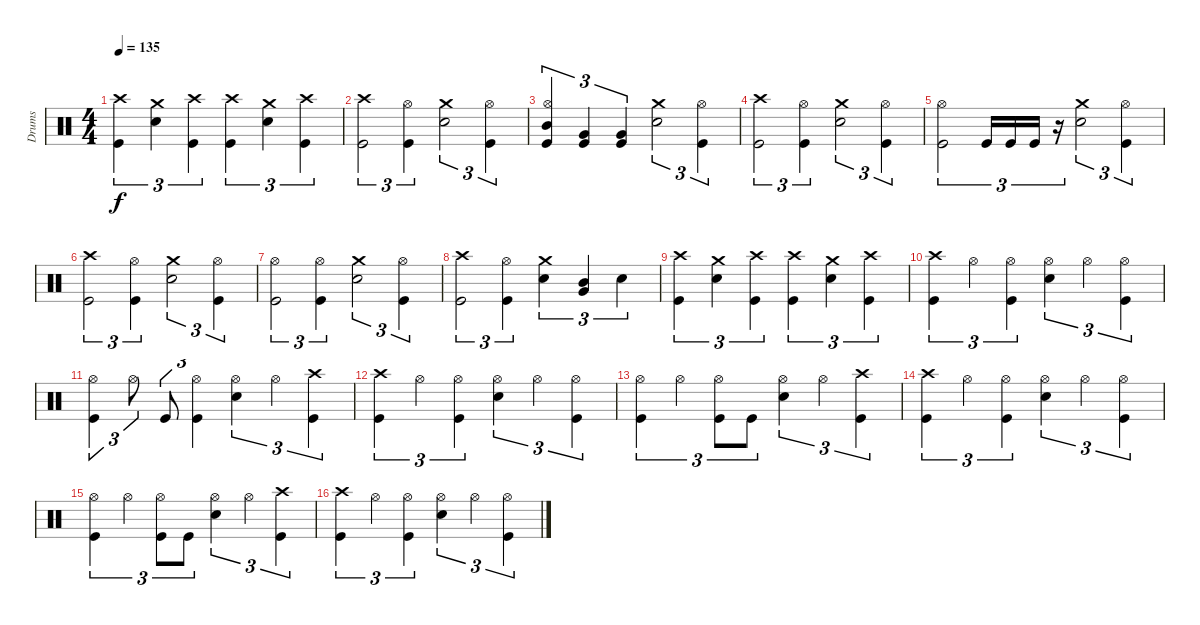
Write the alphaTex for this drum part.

\track ("Drums" "Drums") {instrument percussion}
\staff {score}
\articulation defaults
\ts (4 4)
\tempo 135
\clef neutral
\ks c
("Crash high (hit)" "Kick (hit)").4{tu (3 2) dy f} ("Crash medium (hit)" "Electric Snare (hit)").4{tu (3 2)} ("Crash high (hit)" "Kick (hit)").4{tu (3 2)} ("Crash high (hit)" "Kick (hit)").4{tu (3 2)} ("Crash medium (hit)" "Electric Snare (hit)").4{tu (3 2)} ("Crash high (hit)" "Kick (hit)").4{tu (3 2)} |
("Crash high (hit)" "Kick (hit)").2{tu (3 2)} ("Hi-Hat (open)" "Kick (hit)").4{tu (3 2)} ("Crash medium (hit)" "Electric Snare (hit)").2{tu (3 2)} ("Hi-Hat (open)" "Kick (hit)").4{tu (3 2)} |
("Hi-Hat (open)" "Mid Tom (hit)" "Kick (hit)").4{tu (3 2)} ("Very Low Tom (hit)" "Kick (hit)").4{tu (3 2)} ("Very Low Tom (hit)" "Kick (hit)").4{tu (3 2)} ("Crash medium (hit)" "Electric Snare (hit)").2{tu (3 2)} ("Hi-Hat (open)" "Kick (hit)").4{tu (3 2)} |
("Crash high (hit)" "Kick (hit)").2{tu (3 2)} ("Hi-Hat (open)" "Kick (hit)").4{tu (3 2)} ("Crash medium (hit)" "Electric Snare (hit)").2{tu (3 2)} ("Hi-Hat (open)" "Kick (hit)").4{tu (3 2)} |
("Hi-Hat (open)" "Kick (hit)").2{tu (3 2)} "Kick (hit)".16{tu (3 2)} "Kick (hit)".16{tu (3 2)} "Kick (hit)".16{tu (3 2)} r.16{tu (3 2)} ("Crash medium (hit)" "Electric Snare (hit)").2{tu (3 2)} ("Hi-Hat (open)" "Kick (hit)").4{tu (3 2)} |
("Crash high (hit)" "Kick (hit)").2{tu (3 2)} ("Hi-Hat (open)" "Kick (hit)").4{tu (3 2)} ("Crash medium (hit)" "Electric Snare (hit)").2{tu (3 2)} ("Hi-Hat (open)" "Kick (hit)").4{tu (3 2)} |
("Hi-Hat (open)" "Kick (hit)").2{tu (3 2)} ("Hi-Hat (open)" "Kick (hit)").4{tu (3 2)} ("Crash medium (hit)" "Electric Snare (hit)").2{tu (3 2)} ("Hi-Hat (open)" "Kick (hit)").4{tu (3 2)} |
("Crash high (hit)" "Kick (hit)").2{tu (3 2)} ("Hi-Hat (open)" "Kick (hit)").4{tu (3 2)} ("Crash medium (hit)" "Electric Snare (hit)").4{tu (3 2)} ("Mid Tom (hit)" "Very Low Tom (hit)").4{tu (3 2)} "Electric Snare (hit)".4{tu (3 2)} |
("Crash high (hit)" "Kick (hit)").4{tu (3 2)} ("Crash medium (hit)" "Electric Snare (hit)").4{tu (3 2)} ("Crash high (hit)" "Kick (hit)").4{tu (3 2)} ("Crash high (hit)" "Kick (hit)").4{tu (3 2)} ("Crash medium (hit)" "Electric Snare (hit)").4{tu (3 2)} ("Crash high (hit)" "Kick (hit)").4{tu (3 2)} |
("Crash high (hit)" "Kick (hit)").4{tu (3 2)} "Hi-Hat (open)".4{tu (3 2)} ("Hi-Hat (open)" "Kick (hit)").4{tu (3 2)} ("Hi-Hat (open)" "Electric Snare (hit)").4{tu (3 2)} "Hi-Hat (open)".4{tu (3 2)} ("Hi-Hat (open)" "Kick (hit)").4{tu (3 2)} |
("Hi-Hat (open)" "Kick (hit)").4{tu (3 2)} "Hi-Hat (open)".8{tu (3 2)} "Kick (hit)".8{tu (3 2)} ("Hi-Hat (open)" "Kick (hit)").4{tu (3 2)} ("Hi-Hat (open)" "Electric Snare (hit)").4{tu (3 2)} "Hi-Hat (open)".4{tu (3 2)} ("Crash high (hit)" "Kick (hit)").4{tu (3 2)} |
("Crash high (hit)" "Kick (hit)").4{tu (3 2)} "Hi-Hat (open)".4{tu (3 2)} ("Hi-Hat (open)" "Kick (hit)").4{tu (3 2)} ("Hi-Hat (open)" "Electric Snare (hit)").4{tu (3 2)} "Hi-Hat (open)".4{tu (3 2)} ("Hi-Hat (open)" "Kick (hit)").4{tu (3 2)} |
("Hi-Hat (open)" "Kick (hit)").4{tu (3 2)} "Hi-Hat (open)".4{tu (3 2)} ("Hi-Hat (open)" "Kick (hit)").8{tu (3 2)} "Kick (hit)".8{tu (3 2)} ("Hi-Hat (open)" "Electric Snare (hit)").4{tu (3 2)} "Hi-Hat (open)".4{tu (3 2)} ("Crash high (hit)" "Kick (hit)").4{tu (3 2)} |
("Crash high (hit)" "Kick (hit)").4{tu (3 2)} "Hi-Hat (open)".4{tu (3 2)} ("Hi-Hat (open)" "Kick (hit)").4{tu (3 2)} ("Hi-Hat (open)" "Electric Snare (hit)").4{tu (3 2)} "Hi-Hat (open)".4{tu (3 2)} ("Hi-Hat (open)" "Kick (hit)").4{tu (3 2)} |
("Hi-Hat (open)" "Kick (hit)").4{tu (3 2)} "Hi-Hat (open)".4{tu (3 2)} ("Hi-Hat (open)" "Kick (hit)").8{tu (3 2)} "Kick (hit)".8{tu (3 2)} ("Hi-Hat (open)" "Electric Snare (hit)").4{tu (3 2)} "Hi-Hat (open)".4{tu (3 2)} ("Crash high (hit)" "Kick (hit)").4{tu (3 2)} |
("Crash high (hit)" "Kick (hit)").4{tu (3 2)} "Hi-Hat (open)".4{tu (3 2)} ("Hi-Hat (open)" "Kick (hit)").4{tu (3 2)} ("Hi-Hat (open)" "Electric Snare (hit)").4{tu (3 2)} "Hi-Hat (open)".4{tu (3 2)} ("Hi-Hat (open)" "Kick (hit)").4{tu (3 2)}
